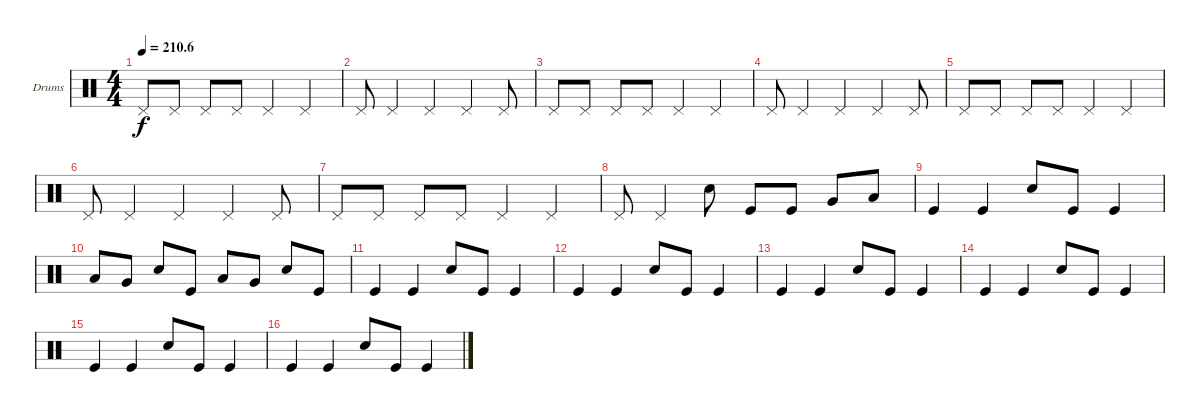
\defaultSystemsLayout 4
\bracketExtendMode groupsimilarinstruments
\firstSystemTrackNameOrientation horizontal
\otherSystemsTrackNameOrientation horizontal
\track ("Drumkit" "Drums") {instrument percussion}
\staff {score}
\articulation defaults
\ts (4 4)
\tempo
210.6
\accidentals auto
\clef neutral
\ottava regular
\simile none
\ks c "Pedal Hi-Hat (hit)".8{dy f} "Pedal Hi-Hat (hit)".8 "Pedal Hi-Hat (hit)".8 "Pedal Hi-Hat (hit)".8 "Pedal Hi-Hat (hit)".4 "Pedal Hi-Hat (hit)".4
|
"Pedal Hi-Hat (hit)".8 "Pedal Hi-Hat (hit)".4 "Pedal Hi-Hat (hit)".4 "Pedal Hi-Hat (hit)".4 "Pedal Hi-Hat (hit)".8 |
"Pedal Hi-Hat (hit)".8 "Pedal Hi-Hat (hit)".8 "Pedal Hi-Hat (hit)".8 "Pedal Hi-Hat (hit)".8 "Pedal Hi-Hat (hit)".4 "Pedal Hi-Hat (hit)".4 |
"Pedal Hi-Hat (hit)".8 "Pedal Hi-Hat (hit)".4 "Pedal Hi-Hat (hit)".4 "Pedal Hi-Hat (hit)".4 "Pedal Hi-Hat (hit)".8 |
"Pedal Hi-Hat (hit)".8 "Pedal Hi-Hat (hit)".8 "Pedal Hi-Hat (hit)".8 "Pedal Hi-Hat (hit)".8 "Pedal Hi-Hat (hit)".4 "Pedal Hi-Hat (hit)".4 |
"Pedal Hi-Hat (hit)".8 "Pedal Hi-Hat (hit)".4 "Pedal Hi-Hat (hit)".4 "Pedal Hi-Hat (hit)".4 "Pedal Hi-Hat (hit)".8 |
"Pedal Hi-Hat (hit)".8 "Pedal Hi-Hat (hit)".8 "Pedal Hi-Hat (hit)".8 "Pedal Hi-Hat (hit)".8 "Pedal Hi-Hat (hit)".4 "Pedal Hi-Hat (hit)".4 |
"Pedal Hi-Hat (hit)".8 "Pedal Hi-Hat (hit)".4 "Snare (hit) 2".8 "Kick (hit)".8 "Kick (hit)".8 "Very Low Tom (hit)".8 "Low Tom (hit)".8 |
"Kick (hit)".4 "Kick (hit)".4 "Snare (hit) 2".8 "Kick (hit)".8 "Kick (hit)".4 |
"Low Tom (hit)".8 "Very Low Tom (hit)".8 "Snare (hit) 2".8 "Kick (hit)".8 "Low Tom (hit)".8 "Very Low Tom (hit)".8 "Snare (hit) 2".8 "Kick (hit)".8 |
"Kick (hit)".4 "Kick (hit)".4 "Snare (hit) 2".8 "Kick (hit)".8 "Kick (hit)".4 |
"Kick (hit)".4 "Kick (hit)".4 "Snare (hit) 2".8 "Kick (hit)".8 "Kick (hit)".4 |
"Kick (hit)".4 "Kick (hit)".4 "Snare (hit) 2".8 "Kick (hit)".8 "Kick (hit)".4 |
"Kick (hit)".4 "Kick (hit)".4 "Snare (hit) 2".8 "Kick (hit)".8 "Kick (hit)".4 |
"Kick (hit)".4 "Kick (hit)".4 "Snare (hit) 2".8 "Kick (hit)".8 "Kick (hit)".4 |
"Kick (hit)".4 "Kick (hit)".4 "Snare (hit) 2".8 "Kick (hit)".8 "Kick (hit)".4
